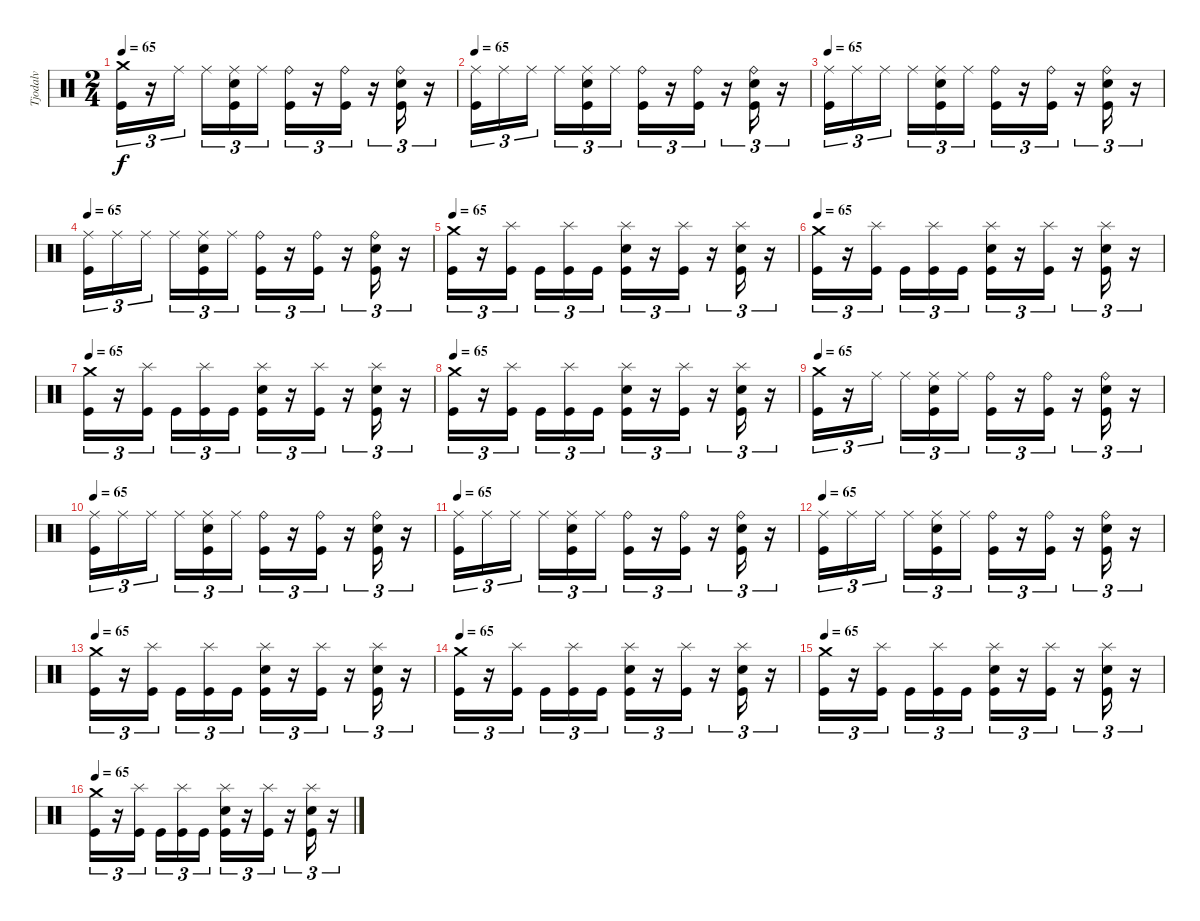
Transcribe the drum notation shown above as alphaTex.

\track ("Tjodalv" "Tjodalv") {instrument percussion}
\staff {score}
\articulation defaults
\ts (2 4)
\tempo 65
\clef neutral
\ks c
("Crash medium (hit)" "Kick (hit)").16{tu (3 2) dy f} r.16{tu (3 2)} "Ride (middle)".16{tu (3 2)} "Ride (middle)".16{tu (3 2)} ("Ride (middle)" "Snare (hit) 2" "Kick (hit)").16{tu (3 2)} "Ride (middle)".16{tu (3 2)} ("Ride (bell)" "Kick (hit)").16{tu (3 2)} r.16{tu (3 2)} ("Ride (bell)" "Kick (hit)").16{tu (3 2)} r.16{tu (3 2)} ("Ride (bell)" "Snare (hit) 2" "Kick (hit)").16{tu (3 2)} r.16{tu (3 2)} |
\tempo 65
("Ride (middle)" "Kick (hit)").16{tu (3 2)} "Ride (middle)".16{tu (3 2)} "Ride (middle)".16{tu (3 2)} "Ride (middle)".16{tu (3 2)} ("Ride (middle)" "Snare (hit) 2" "Kick (hit)").16{tu (3 2)} "Ride (middle)".16{tu (3 2)} ("Ride (bell)" "Kick (hit)").16{tu (3 2)} r.16{tu (3 2)} ("Ride (bell)" "Kick (hit)").16{tu (3 2)} r.16{tu (3 2)} ("Ride (bell)" "Snare (hit) 2" "Kick (hit)").16{tu (3 2)} r.16{tu (3 2)} |
\tempo 65
("Ride (middle)" "Kick (hit)").16{tu (3 2)} "Ride (middle)".16{tu (3 2)} "Ride (middle)".16{tu (3 2)} "Ride (middle)".16{tu (3 2)} ("Ride (middle)" "Snare (hit) 2" "Kick (hit)").16{tu (3 2)} "Ride (middle)".16{tu (3 2)} ("Ride (bell)" "Kick (hit)").16{tu (3 2)} r.16{tu (3 2)} ("Ride (bell)" "Kick (hit)").16{tu (3 2)} r.16{tu (3 2)} ("Ride (bell)" "Snare (hit) 2" "Kick (hit)").16{tu (3 2)} r.16{tu (3 2)} |
\tempo 65
("Ride (middle)" "Kick (hit)").16{tu (3 2)} "Ride (middle)".16{tu (3 2)} "Ride (middle)".16{tu (3 2)} "Ride (middle)".16{tu (3 2)} ("Ride (middle)" "Snare (hit) 2" "Kick (hit)").16{tu (3 2)} "Ride (middle)".16{tu (3 2)} ("Ride (bell)" "Kick (hit)").16{tu (3 2)} r.16{tu (3 2)} ("Ride (bell)" "Kick (hit)").16{tu (3 2)} r.16{tu (3 2)} ("Ride (bell)" "Snare (hit) 2" "Kick (hit)").16{tu (3 2)} r.16{tu (3 2)} |
\tempo 65
("Crash medium (hit)" "Kick (hit)").16{tu (3 2)} r.16{tu (3 2)} ("Splash (hit)" "Kick (hit)").16{tu (3 2)} "Kick (hit)".16{tu (3 2)} ("Splash (hit)" "Kick (hit)").16{tu (3 2)} "Kick (hit)".16{tu (3 2)} ("Splash (hit)" "Snare (hit) 2" "Kick (hit)").16{tu (3 2)} r.16{tu (3 2)} ("Splash (hit)" "Kick (hit)").16{tu (3 2)} r.16{tu (3 2)} ("Splash (hit)" "Snare (hit) 2" "Kick (hit)").16{tu (3 2)} r.16{tu (3 2)} |
\tempo 65
("Crash medium (hit)" "Kick (hit)").16{tu (3 2)} r.16{tu (3 2)} ("Splash (hit)" "Kick (hit)").16{tu (3 2)} "Kick (hit)".16{tu (3 2)} ("Splash (hit)" "Kick (hit)").16{tu (3 2)} "Kick (hit)".16{tu (3 2)} ("Splash (hit)" "Snare (hit) 2" "Kick (hit)").16{tu (3 2)} r.16{tu (3 2)} ("Splash (hit)" "Kick (hit)").16{tu (3 2)} r.16{tu (3 2)} ("Splash (hit)" "Snare (hit) 2" "Kick (hit)").16{tu (3 2)} r.16{tu (3 2)} |
\tempo 65
("Crash medium (hit)" "Kick (hit)").16{tu (3 2)} r.16{tu (3 2)} ("Splash (hit)" "Kick (hit)").16{tu (3 2)} "Kick (hit)".16{tu (3 2)} ("Splash (hit)" "Kick (hit)").16{tu (3 2)} "Kick (hit)".16{tu (3 2)} ("Splash (hit)" "Snare (hit) 2" "Kick (hit)").16{tu (3 2)} r.16{tu (3 2)} ("Splash (hit)" "Kick (hit)").16{tu (3 2)} r.16{tu (3 2)} ("Splash (hit)" "Snare (hit) 2" "Kick (hit)").16{tu (3 2)} r.16{tu (3 2)} |
\tempo 65
("Crash medium (hit)" "Kick (hit)").16{tu (3 2)} r.16{tu (3 2)} ("Splash (hit)" "Kick (hit)").16{tu (3 2)} "Kick (hit)".16{tu (3 2)} ("Splash (hit)" "Kick (hit)").16{tu (3 2)} "Kick (hit)".16{tu (3 2)} ("Splash (hit)" "Snare (hit) 2" "Kick (hit)").16{tu (3 2)} r.16{tu (3 2)} ("Splash (hit)" "Kick (hit)").16{tu (3 2)} r.16{tu (3 2)} ("Splash (hit)" "Snare (hit) 2" "Kick (hit)").16{tu (3 2)} r.16{tu (3 2)} |
\tempo 65
("Crash medium (hit)" "Kick (hit)").16{tu (3 2)} r.16{tu (3 2)} "Ride (middle)".16{tu (3 2)} "Ride (middle)".16{tu (3 2)} ("Ride (middle)" "Snare (hit) 2" "Kick (hit)").16{tu (3 2)} "Ride (middle)".16{tu (3 2)} ("Ride (bell)" "Kick (hit)").16{tu (3 2)} r.16{tu (3 2)} ("Ride (bell)" "Kick (hit)").16{tu (3 2)} r.16{tu (3 2)} ("Ride (bell)" "Snare (hit) 2" "Kick (hit)").16{tu (3 2)} r.16{tu (3 2)} |
\tempo 65
("Ride (middle)" "Kick (hit)").16{tu (3 2)} "Ride (middle)".16{tu (3 2)} "Ride (middle)".16{tu (3 2)} "Ride (middle)".16{tu (3 2)} ("Ride (middle)" "Snare (hit) 2" "Kick (hit)").16{tu (3 2)} "Ride (middle)".16{tu (3 2)} ("Ride (bell)" "Kick (hit)").16{tu (3 2)} r.16{tu (3 2)} ("Ride (bell)" "Kick (hit)").16{tu (3 2)} r.16{tu (3 2)} ("Ride (bell)" "Snare (hit) 2" "Kick (hit)").16{tu (3 2)} r.16{tu (3 2)} |
\tempo 65
("Ride (middle)" "Kick (hit)").16{tu (3 2)} "Ride (middle)".16{tu (3 2)} "Ride (middle)".16{tu (3 2)} "Ride (middle)".16{tu (3 2)} ("Ride (middle)" "Snare (hit) 2" "Kick (hit)").16{tu (3 2)} "Ride (middle)".16{tu (3 2)} ("Ride (bell)" "Kick (hit)").16{tu (3 2)} r.16{tu (3 2)} ("Ride (bell)" "Kick (hit)").16{tu (3 2)} r.16{tu (3 2)} ("Ride (bell)" "Snare (hit) 2" "Kick (hit)").16{tu (3 2)} r.16{tu (3 2)} |
\tempo 65
("Ride (middle)" "Kick (hit)").16{tu (3 2)} "Ride (middle)".16{tu (3 2)} "Ride (middle)".16{tu (3 2)} "Ride (middle)".16{tu (3 2)} ("Ride (middle)" "Snare (hit) 2" "Kick (hit)").16{tu (3 2)} "Ride (middle)".16{tu (3 2)} ("Ride (bell)" "Kick (hit)").16{tu (3 2)} r.16{tu (3 2)} ("Ride (bell)" "Kick (hit)").16{tu (3 2)} r.16{tu (3 2)} ("Ride (bell)" "Snare (hit) 2" "Kick (hit)").16{tu (3 2)} r.16{tu (3 2)} |
\tempo 65
("Crash medium (hit)" "Kick (hit)").16{tu (3 2)} r.16{tu (3 2)} ("Splash (hit)" "Kick (hit)").16{tu (3 2)} "Kick (hit)".16{tu (3 2)} ("Splash (hit)" "Kick (hit)").16{tu (3 2)} "Kick (hit)".16{tu (3 2)} ("Splash (hit)" "Snare (hit) 2" "Kick (hit)").16{tu (3 2)} r.16{tu (3 2)} ("Splash (hit)" "Kick (hit)").16{tu (3 2)} r.16{tu (3 2)} ("Splash (hit)" "Snare (hit) 2" "Kick (hit)").16{tu (3 2)} r.16{tu (3 2)} |
\tempo 65
("Crash medium (hit)" "Kick (hit)").16{tu (3 2)} r.16{tu (3 2)} ("Splash (hit)" "Kick (hit)").16{tu (3 2)} "Kick (hit)".16{tu (3 2)} ("Splash (hit)" "Kick (hit)").16{tu (3 2)} "Kick (hit)".16{tu (3 2)} ("Splash (hit)" "Snare (hit) 2" "Kick (hit)").16{tu (3 2)} r.16{tu (3 2)} ("Splash (hit)" "Kick (hit)").16{tu (3 2)} r.16{tu (3 2)} ("Splash (hit)" "Snare (hit) 2" "Kick (hit)").16{tu (3 2)} r.16{tu (3 2)} |
\tempo 65
("Crash medium (hit)" "Kick (hit)").16{tu (3 2)} r.16{tu (3 2)} ("Splash (hit)" "Kick (hit)").16{tu (3 2)} "Kick (hit)".16{tu (3 2)} ("Splash (hit)" "Kick (hit)").16{tu (3 2)} "Kick (hit)".16{tu (3 2)} ("Splash (hit)" "Snare (hit) 2" "Kick (hit)").16{tu (3 2)} r.16{tu (3 2)} ("Splash (hit)" "Kick (hit)").16{tu (3 2)} r.16{tu (3 2)} ("Splash (hit)" "Snare (hit) 2" "Kick (hit)").16{tu (3 2)} r.16{tu (3 2)} |
\tempo 65
("Crash medium (hit)" "Kick (hit)").16{tu (3 2)} r.16{tu (3 2)} ("Splash (hit)" "Kick (hit)").16{tu (3 2)} "Kick (hit)".16{tu (3 2)} ("Splash (hit)" "Kick (hit)").16{tu (3 2)} "Kick (hit)".16{tu (3 2)} ("Splash (hit)" "Snare (hit) 2" "Kick (hit)").16{tu (3 2)} r.16{tu (3 2)} ("Splash (hit)" "Kick (hit)").16{tu (3 2)} r.16{tu (3 2)} ("Splash (hit)" "Snare (hit) 2" "Kick (hit)").16{tu (3 2)} r.16{tu (3 2)}
